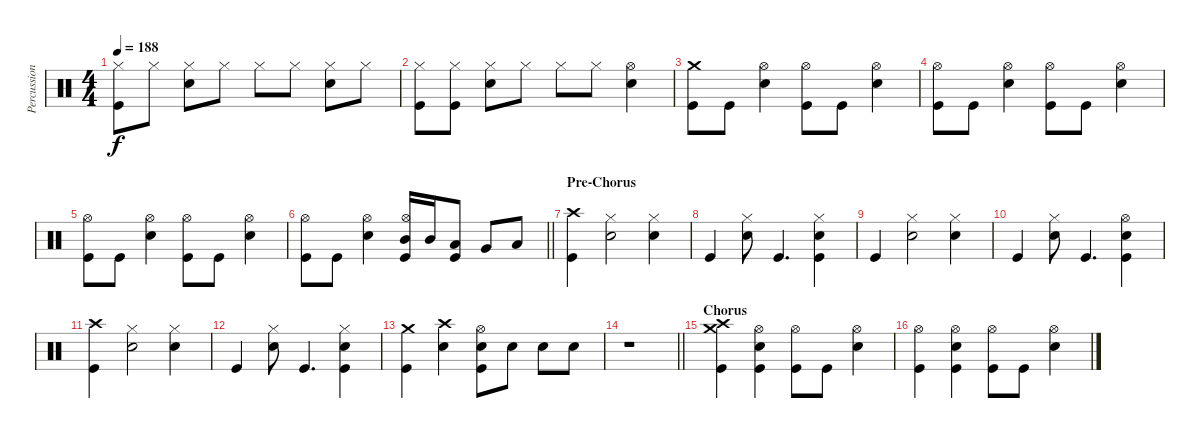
\track ("Percussion" "Percussion") {instrument percussion}
\staff {score}
\articulation defaults
\ts (4 4)
\tempo 188
\clef neutral
\ks c
("Hi-Hat (closed)" "Kick (hit)").8{dy f} "Hi-Hat (closed)".8 ("Hi-Hat (closed)" "Electric Snare (hit)").8 "Hi-Hat (closed)".8 "Hi-Hat (closed)".8 "Hi-Hat (closed)".8 ("Hi-Hat (closed)" "Electric Snare (hit)").8 "Hi-Hat (closed)".8 |
("Hi-Hat (closed)" "Kick (hit)").8 ("Hi-Hat (closed)" "Kick (hit)").8 ("Hi-Hat (closed)" "Electric Snare (hit)").8 "Hi-Hat (closed)".8 "Hi-Hat (closed)".8 "Hi-Hat (closed)".8 ("Hi-Hat (open)" "Electric Snare (hit)").4 |
("Crash medium (hit)" "Kick (hit)").8 "Kick (hit)".8 ("Hi-Hat (open)" "Electric Snare (hit)").4 ("Hi-Hat (open)" "Kick (hit)").8 "Kick (hit)".8 ("Hi-Hat (open)" "Electric Snare (hit)").4 |
("Hi-Hat (open)" "Kick (hit)").8 "Kick (hit)".8 ("Hi-Hat (open)" "Electric Snare (hit)").4 ("Hi-Hat (open)" "Kick (hit)").8 "Kick (hit)".8 ("Hi-Hat (open)" "Electric Snare (hit)").4 |
("Hi-Hat (open)" "Kick (hit)").8 "Kick (hit)".8 ("Hi-Hat (open)" "Electric Snare (hit)").4 ("Hi-Hat (open)" "Kick (hit)").8 "Kick (hit)".8 ("Hi-Hat (open)" "Electric Snare (hit)").4 |
\barLineRight lightlight
("Hi-Hat (open)" "Kick (hit)").8 "Kick (hit)".8 ("Hi-Hat (open)" "Electric Snare (hit)").4 ("Hi-Hat (open)" "Mid Tom (hit)" "Kick (hit)").16 "Mid Tom (hit)".16 ("Low Tom (hit)" "Kick (hit)").8 "Very Low Tom (hit)".8 "Low Floor Tom (hit)".8 |
\section ("" "Pre-Chorus")
("Crash high (hit)" "Kick (hit)").4 ("Hi-Hat (closed)" "Electric Snare (hit)").2 ("Hi-Hat (closed)" "Electric Snare (hit)").4 |
"Kick (hit)".4 ("Hi-Hat (closed)" "Electric Snare (hit)").8 "Kick (hit)".4{d} ("Hi-Hat (closed)" "Electric Snare (hit)" "Kick (hit)").4 |
"Kick (hit)".4 ("Hi-Hat (closed)" "Electric Snare (hit)").2 ("Hi-Hat (closed)" "Electric Snare (hit)").4 |
"Kick (hit)".4 ("Hi-Hat (closed)" "Electric Snare (hit)").8 "Kick (hit)".4{d} ("Hi-Hat (open)" "Electric Snare (hit)" "Kick (hit)").4 |
("Crash high (hit)" "Kick (hit)").4 ("Hi-Hat (closed)" "Electric Snare (hit)").2 ("Hi-Hat (closed)" "Electric Snare (hit)").4 |
"Kick (hit)".4 ("Hi-Hat (closed)" "Electric Snare (hit)").8 "Kick (hit)".4{d} ("Hi-Hat (closed)" "Electric Snare (hit)" "Kick (hit)").4 |
("Crash medium (hit)" "Kick (hit)").4 ("Crash high (hit)" "Electric Snare (hit)").4 ("Hi-Hat (open)" "Electric Snare (hit)" "Kick (hit)").8 "Electric Snare (hit)".8 "Electric Snare (hit)".8 "Electric Snare (hit)".8 |
\barLineRight lightlight
r.1 |
\section ("" "Chorus")
("Crash high (hit)" "Crash medium (hit)" "Kick (hit)").4 ("Hi-Hat (open)" "Electric Snare (hit)" "Kick (hit)").4 ("Hi-Hat (open)" "Kick (hit)").8 "Kick (hit)".8 ("Hi-Hat (open)" "Electric Snare (hit)").4 |
("Hi-Hat (open)" "Kick (hit)").4 ("Hi-Hat (open)" "Electric Snare (hit)" "Kick (hit)").4 ("Hi-Hat (open)" "Kick (hit)").8 "Kick (hit)".8 ("Hi-Hat (open)" "Electric Snare (hit)").4
